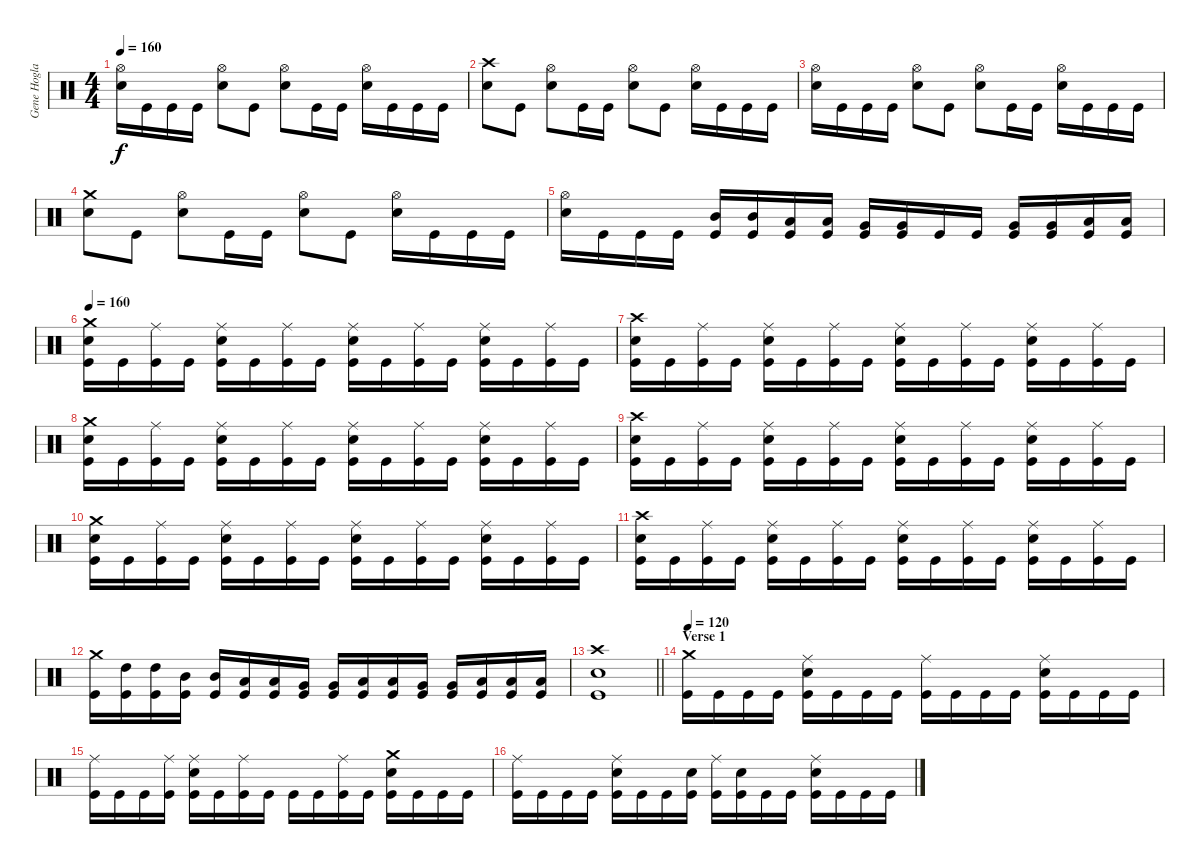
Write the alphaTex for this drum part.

\track ("Gene Hoglan" "Gene Hogla") {instrument percussion}
\staff {score}
\articulation defaults
\ts (4 4)
\tempo 160
\clef neutral
\ks c
("Hi-Hat (open)" "Electric Snare (hit)").16{dy f} "Kick (hit)".16 "Kick (hit)".16 "Kick (hit)".16 ("Hi-Hat (open)" "Electric Snare (hit)").8 "Kick (hit)".8 ("Hi-Hat (open)" "Electric Snare (hit)").8 "Kick (hit)".16 "Kick (hit)".16 ("Hi-Hat (open)" "Electric Snare (hit)").16 "Kick (hit)".16 "Kick (hit)".16 "Kick (hit)".16 |
("Crash high (hit)" "Electric Snare (hit)").8 "Kick (hit)".8 ("Hi-Hat (open)" "Electric Snare (hit)").8 "Kick (hit)".16 "Kick (hit)".16 ("Hi-Hat (open)" "Electric Snare (hit)").8 "Kick (hit)".8 ("Hi-Hat (open)" "Electric Snare (hit)").16 "Kick (hit)".16 "Kick (hit)".16 "Kick (hit)".16 |
("Hi-Hat (open)" "Electric Snare (hit)").16 "Kick (hit)".16 "Kick (hit)".16 "Kick (hit)".16 ("Hi-Hat (open)" "Electric Snare (hit)").8 "Kick (hit)".8 ("Hi-Hat (open)" "Electric Snare (hit)").8 "Kick (hit)".16 "Kick (hit)".16 ("Hi-Hat (open)" "Electric Snare (hit)").16 "Kick (hit)".16 "Kick (hit)".16 "Kick (hit)".16 |
("Crash medium (hit)" "Electric Snare (hit)").8 "Kick (hit)".8 ("Hi-Hat (open)" "Electric Snare (hit)").8 "Kick (hit)".16 "Kick (hit)".16 ("Hi-Hat (open)" "Electric Snare (hit)").8 "Kick (hit)".8 ("Hi-Hat (open)" "Electric Snare (hit)").16 "Kick (hit)".16 "Kick (hit)".16 "Kick (hit)".16 |
("Hi-Hat (open)" "Electric Snare (hit)").16 "Kick (hit)".16 "Kick (hit)".16 "Kick (hit)".16 ("Mid Tom (hit)" "Kick (hit)").16 ("Mid Tom (hit)" "Kick (hit)").16 ("Low Tom (hit)" "Kick (hit)").16 ("Low Tom (hit)" "Kick (hit)").16 ("Very Low Tom (hit)" "Kick (hit)").16 ("Very Low Tom (hit)" "Kick (hit)").16 "Kick (hit)".16 "Kick (hit)".16 ("Very Low Tom (hit)" "Kick (hit)").16 ("Very Low Tom (hit)" "Kick (hit)").16 ("Low Floor Tom (hit)" "Kick (hit)").16 ("Low Floor Tom (hit)" "Kick (hit)").16 |
\tempo 160
("Crash medium (hit)" "Electric Snare (hit)" "Kick (hit)").16 "Kick (hit)".16 ("Ride (middle)" "Kick (hit)").16 "Kick (hit)".16 ("Ride (middle)" "Electric Snare (hit)" "Kick (hit)").16 "Kick (hit)".16 ("Ride (middle)" "Kick (hit)").16 "Kick (hit)".16 ("Ride (middle)" "Electric Snare (hit)" "Kick (hit)").16 "Kick (hit)".16 ("Ride (middle)" "Kick (hit)").16 "Kick (hit)".16 ("Ride (middle)" "Electric Snare (hit)" "Kick (hit)").16 "Kick (hit)".16 ("Ride (middle)" "Kick (hit)").16 "Kick (hit)".16 |
("Crash high (hit)" "Electric Snare (hit)" "Kick (hit)").16 "Kick (hit)".16 ("Ride (middle)" "Kick (hit)").16 "Kick (hit)".16 ("Ride (middle)" "Electric Snare (hit)" "Kick (hit)").16 "Kick (hit)".16 ("Ride (middle)" "Kick (hit)").16 "Kick (hit)".16 ("Ride (middle)" "Electric Snare (hit)" "Kick (hit)").16 "Kick (hit)".16 ("Ride (middle)" "Kick (hit)").16 "Kick (hit)".16 ("Ride (middle)" "Electric Snare (hit)" "Kick (hit)").16 "Kick (hit)".16 ("Ride (middle)" "Kick (hit)").16 "Kick (hit)".16 |
("Crash medium (hit)" "Electric Snare (hit)" "Kick (hit)").16 "Kick (hit)".16 ("Ride (middle)" "Kick (hit)").16 "Kick (hit)".16 ("Ride (middle)" "Electric Snare (hit)" "Kick (hit)").16 "Kick (hit)".16 ("Ride (middle)" "Kick (hit)").16 "Kick (hit)".16 ("Ride (middle)" "Electric Snare (hit)" "Kick (hit)").16 "Kick (hit)".16 ("Ride (middle)" "Kick (hit)").16 "Kick (hit)".16 ("Ride (middle)" "Electric Snare (hit)" "Kick (hit)").16 "Kick (hit)".16 ("Ride (middle)" "Kick (hit)").16 "Kick (hit)".16 |
("Crash high (hit)" "Electric Snare (hit)" "Kick (hit)").16 "Kick (hit)".16 ("Ride (middle)" "Kick (hit)").16 "Kick (hit)".16 ("Ride (middle)" "Electric Snare (hit)" "Kick (hit)").16 "Kick (hit)".16 ("Ride (middle)" "Kick (hit)").16 "Kick (hit)".16 ("Ride (middle)" "Electric Snare (hit)" "Kick (hit)").16 "Kick (hit)".16 ("Ride (middle)" "Kick (hit)").16 "Kick (hit)".16 ("Ride (middle)" "Electric Snare (hit)" "Kick (hit)").16 "Kick (hit)".16 ("Ride (middle)" "Kick (hit)").16 "Kick (hit)".16 |
("Crash medium (hit)" "Electric Snare (hit)" "Kick (hit)").16 "Kick (hit)".16 ("Ride (middle)" "Kick (hit)").16 "Kick (hit)".16 ("Ride (middle)" "Electric Snare (hit)" "Kick (hit)").16 "Kick (hit)".16 ("Ride (middle)" "Kick (hit)").16 "Kick (hit)".16 ("Ride (middle)" "Electric Snare (hit)" "Kick (hit)").16 "Kick (hit)".16 ("Ride (middle)" "Kick (hit)").16 "Kick (hit)".16 ("Ride (middle)" "Electric Snare (hit)" "Kick (hit)").16 "Kick (hit)".16 ("Ride (middle)" "Kick (hit)").16 "Kick (hit)".16 |
("Crash high (hit)" "Electric Snare (hit)" "Kick (hit)").16 "Kick (hit)".16 ("Ride (middle)" "Kick (hit)").16 "Kick (hit)".16 ("Ride (middle)" "Electric Snare (hit)" "Kick (hit)").16 "Kick (hit)".16 ("Ride (middle)" "Kick (hit)").16 "Kick (hit)".16 ("Ride (middle)" "Electric Snare (hit)" "Kick (hit)").16 "Kick (hit)".16 ("Ride (middle)" "Kick (hit)").16 "Kick (hit)".16 ("Ride (middle)" "Electric Snare (hit)" "Kick (hit)").16 "Kick (hit)".16 ("Ride (middle)" "Kick (hit)").16 "Kick (hit)".16 |
("Crash medium (hit)" "Kick (hit)").16 ("High Tom (hit)" "Kick (hit)").16 ("High Tom (hit)" "Kick (hit)").16 ("Mid Tom (hit)" "Kick (hit)").16 ("Mid Tom (hit)" "Kick (hit)").16 ("Low Tom (hit)" "Kick (hit)").16 ("Low Tom (hit)" "Kick (hit)").16 ("Very Low Tom (hit)" "Kick (hit)").16 ("Very Low Tom (hit)" "Kick (hit)").16 ("Low Tom (hit)" "Kick (hit)").16 ("Low Tom (hit)" "Kick (hit)").16 ("Very Low Tom (hit)" "Kick (hit)").16 ("Very Low Tom (hit)" "Kick (hit)").16 ("Low Floor Tom (hit)" "Kick (hit)").16 ("Low Floor Tom (hit)" "Kick (hit)").16 ("Low Floor Tom (hit)" "Kick (hit)").16 |
\barLineRight lightlight
("Crash high (hit)" "Electric Snare (hit)" "Kick (hit)").1 |
\section ("" "Verse 1")
\tempo 120
("Crash medium (hit)" "Kick (hit)").16 "Kick (hit)".16 "Kick (hit)".16 "Kick (hit)".16 ("Ride (middle)" "Electric Snare (hit)" "Kick (hit)").16 "Kick (hit)".16 "Kick (hit)".16 "Kick (hit)".16 ("Ride (middle)" "Kick (hit)").16 "Kick (hit)".16 "Kick (hit)".16 "Kick (hit)".16 ("Ride (middle)" "Electric Snare (hit)" "Kick (hit)").16 "Kick (hit)".16 "Kick (hit)".16 "Kick (hit)".16 |
("Ride (middle)" "Kick (hit)").16 "Kick (hit)".16 "Kick (hit)".16 ("Ride (middle)" "Kick (hit)").16 ("Ride (middle)" "Electric Snare (hit)" "Kick (hit)").16 "Kick (hit)".16 ("Ride (middle)" "Kick (hit)").16 "Kick (hit)".16 "Kick (hit)".16 "Kick (hit)".16 ("Ride (middle)" "Kick (hit)").16 "Kick (hit)".16 ("Crash medium (hit)" "Electric Snare (hit)" "Kick (hit)").16 "Kick (hit)".16 "Kick (hit)".16 "Kick (hit)".16 |
("Ride (middle)" "Kick (hit)").16 "Kick (hit)".16 "Kick (hit)".16 "Kick (hit)".16 ("Ride (middle)" "Electric Snare (hit)" "Kick (hit)").16 "Kick (hit)".16 "Kick (hit)".16 ("Electric Snare (hit)" "Kick (hit)").16 ("Ride (middle)" "Kick (hit)").16 ("Electric Snare (hit)" "Kick (hit)").16 "Kick (hit)".16 "Kick (hit)".16 ("Ride (middle)" "Electric Snare (hit)" "Kick (hit)").16 "Kick (hit)".16 "Kick (hit)".16 "Kick (hit)".16
